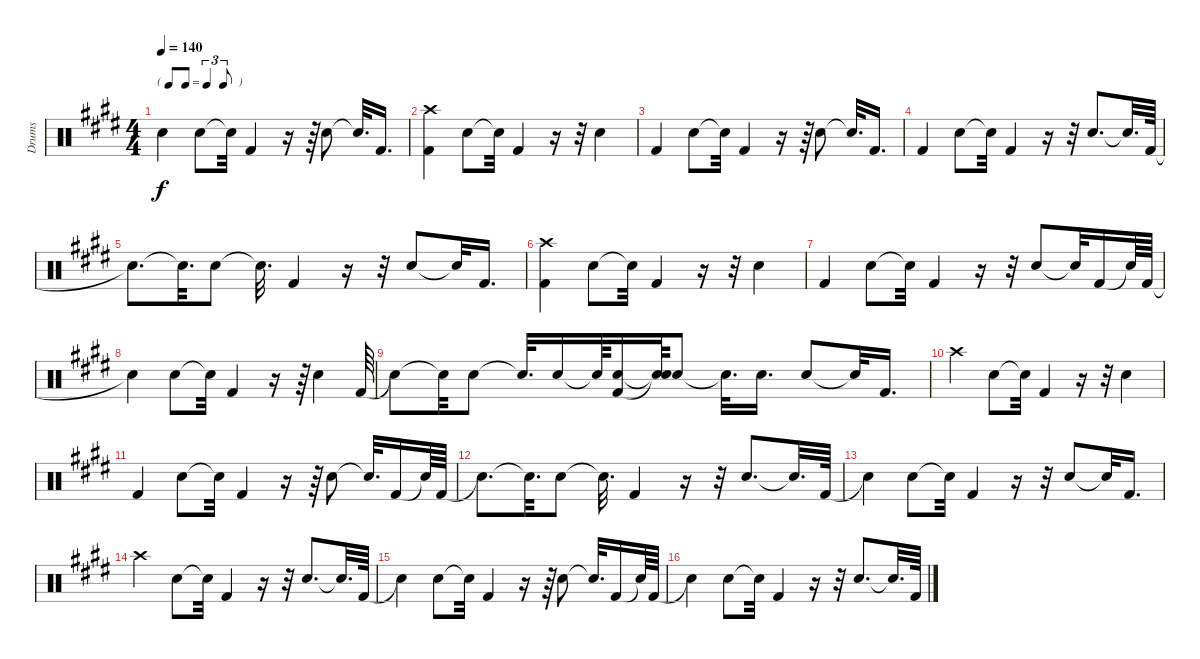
\track ("Drums" "Drums") {instrument percussion}
\staff {score}
\articulation defaults
\ts (4 4)
\tf triplet8th
\tempo 140
\clef neutral
\ks e "Snare (hit)"{t}.4{dy f} "Snare (hit) 2".8 "Snare (hit)"{t}.32 "Kick (hit) 2".4
r.16 r.64 "Snare (hit) 2".8 "Snare (hit)"{t}.32{d} "Kick (hit) 2".16{d} |
("Kick (hit) 2" "Crash high (hit)").4 "Snare (hit) 2".8 "Snare (hit)"{t}.32 "Kick (hit) 2".4 r.16 r.32 "Snare (hit) 2".4 |
"Kick (hit) 2".4 "Snare (hit) 2".8 "Snare (hit)"{t}.32 "Kick (hit) 2".4 r.16 r.64 "Snare (hit) 2".8 "Snare (hit)"{t}.32{d} "Kick (hit) 2".16{d} |
"Kick (hit) 2".4 "Snare (hit) 2".8 "Snare (hit)"{t}.32 "Kick (hit) 2".4 r.16 r.32 "Snare (hit) 2".8{d} "Snare (hit)"{t}.32{d} "Kick (hit) 2".64 |
"Snare (hit)"{t}.8{d} "Snare (hit)"{t}.32{d} "Snare (hit) 2".8 "Snare (hit)"{t}.32{d} "Kick (hit) 2".4 r.16 r.32 "Snare (hit) 2".8 "Snare (hit)"{t}.32 "Kick (hit) 2".16{d} |
("Kick (hit) 2" "Crash high (hit)").4 "Snare (hit) 2".8 "Snare (hit)"{t}.32 "Kick (hit) 2".4 r.16 r.32 "Snare (hit) 2".4 |
"Kick (hit) 2".4 "Snare (hit) 2".8 "Snare (hit)"{t}.32 "Kick (hit) 2".4 r.16 r.32 "Snare (hit) 2".8 "Snare (hit)"{t}.32 "Kick (hit) 2".16 "Snare (hit)"{t}.64 "Kick (hit) 2".64 |
"Snare (hit)"{t}.4 "Snare (hit) 2".8 "Snare (hit)"{t}.32 "Kick (hit) 2".4 r.16 r.64 "Snare (hit) 2".4 "Kick (hit) 2".64 |
"Snare (hit)"{t}.8 "Snare (hit)"{t}.32 "Snare (hit) 2".8 "Snare (hit)"{t}.32{d} "Snare (hit) 2".16 "Snare (hit)"{t}.64 ("Kick (hit) 2" "Snare (hit) 2").16 ("Snare (hit)"{t} "Snare (hit)"{t}).64 "Snare (hit) 2".8 "Snare (hit)"{t}.32{d} "Snare (hit) 2".16{d} "Snare (hit) 2".8 "Snare (hit)"{t}.32 "Kick (hit) 2".16{d} |
"Crash high (hit)".4 "Snare (hit) 2".8 "Snare (hit)"{t}.32 "Kick (hit) 2".4 r.16 r.32 "Snare (hit) 2".4 |
"Kick (hit) 2".4 "Snare (hit) 2".8 "Snare (hit)"{t}.32 "Kick (hit) 2".4 r.16 r.64 "Snare (hit) 2".8 "Snare (hit)"{t}.32{d} "Kick (hit) 2".16 "Snare (hit)"{t}.64 "Kick (hit) 2".64 |
"Snare (hit)"{t}.8{d} "Snare (hit)"{t}.32{d} "Snare (hit) 2".8 "Snare (hit)"{t}.32{d} "Kick (hit) 2".4 r.16 r.32 "Snare (hit) 2".8{d} "Snare (hit)"{t}.32{d} "Kick (hit) 2".64 |
"Snare (hit)"{t}.4 "Snare (hit) 2".8 "Snare (hit)"{t}.32 "Kick (hit) 2".4 r.16 r.32 "Snare (hit) 2".8 "Snare (hit)"{t}.32 "Kick (hit) 2".16{d} |
"Crash high (hit)".4 "Snare (hit) 2".8 "Snare (hit)"{t}.32 "Kick (hit) 2".4 r.16 r.32 "Snare (hit) 2".8{d} "Snare (hit)"{t}.32{d} "Kick (hit) 2".64 |
"Snare (hit)"{t}.4 "Snare (hit) 2".8 "Snare (hit)"{t}.32 "Kick (hit) 2".4 r.16 r.64 "Snare (hit) 2".8 "Snare (hit)"{t}.32{d} "Kick (hit) 2".16 "Snare (hit)"{t}.64 "Kick (hit) 2".64 |
"Snare (hit)"{t}.4 "Snare (hit) 2".8 "Snare (hit)"{t}.32 "Kick (hit) 2".4 r.16 r.32 "Snare (hit) 2".8{d} "Snare (hit)"{t}.32{d} "Kick (hit) 2".64
